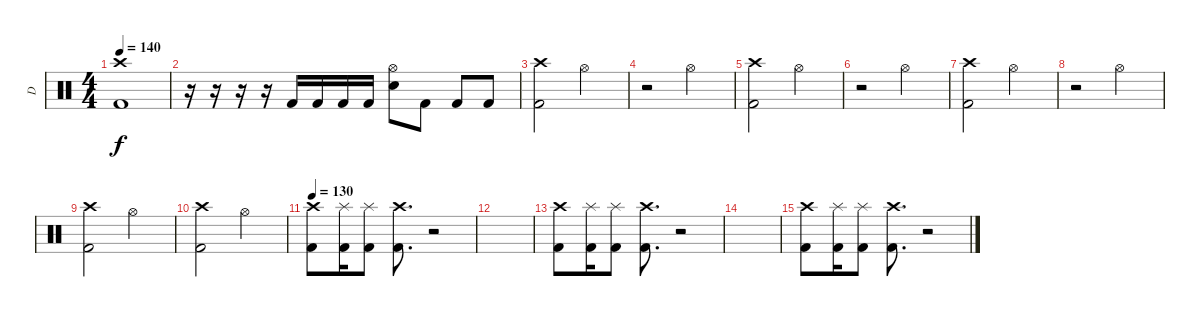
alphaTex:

\track ("D" "D") {instrument percussion}
\staff {score}
\articulation defaults
\ts (4 4)
\tempo 140
\clef neutral
\ks c
("Crash high (hit)" "Kick (hit) 2").1{dy f} |
r.16 r.16 r.16 r.16 "Kick (hit) 2".16 "Kick (hit) 2".16 "Kick (hit) 2".16 "Kick (hit) 2".16 ("Electric Snare (hit)" "Hi-Hat (open)").8 "Kick (hit) 2".8 "Kick (hit) 2".8 "Kick (hit) 2".8 |
("Crash high (hit)" "Kick (hit) 2").2 "Hi-Hat (open)".2 |
r.2 "Hi-Hat (open)".2 |
("Crash high (hit)" "Kick (hit) 2").2 "Hi-Hat (open)".2 |
r.2 "Hi-Hat (open)".2 |
("Crash high (hit)" "Kick (hit) 2").2 "Hi-Hat (open)".2 |
r.2 "Hi-Hat (open)".2 |
("Crash high (hit)" "Kick (hit) 2").2 "Hi-Hat (open)".2 |
("Crash high (hit)" "Kick (hit) 2").2 "Hi-Hat (open)".2 |
\tempo 130
("Crash high (hit)" "Kick (hit) 2").8 ("Splash (hit)" "Kick (hit) 2").16 ("Splash (hit)" "Kick (hit) 2").8 ("Crash high (hit)" "Kick (hit) 2").8{d} r.2 |
|
("Crash high (hit)" "Kick (hit) 2").8 ("Splash (hit)" "Kick (hit) 2").16 ("Splash (hit)" "Kick (hit) 2").8 ("Crash high (hit)" "Kick (hit) 2").8{d} r.2 |
|
("Crash high (hit)" "Kick (hit) 2").8 ("Splash (hit)" "Kick (hit) 2").16 ("Splash (hit)" "Kick (hit) 2").8 ("Crash high (hit)" "Kick (hit) 2").8{d} r.2
